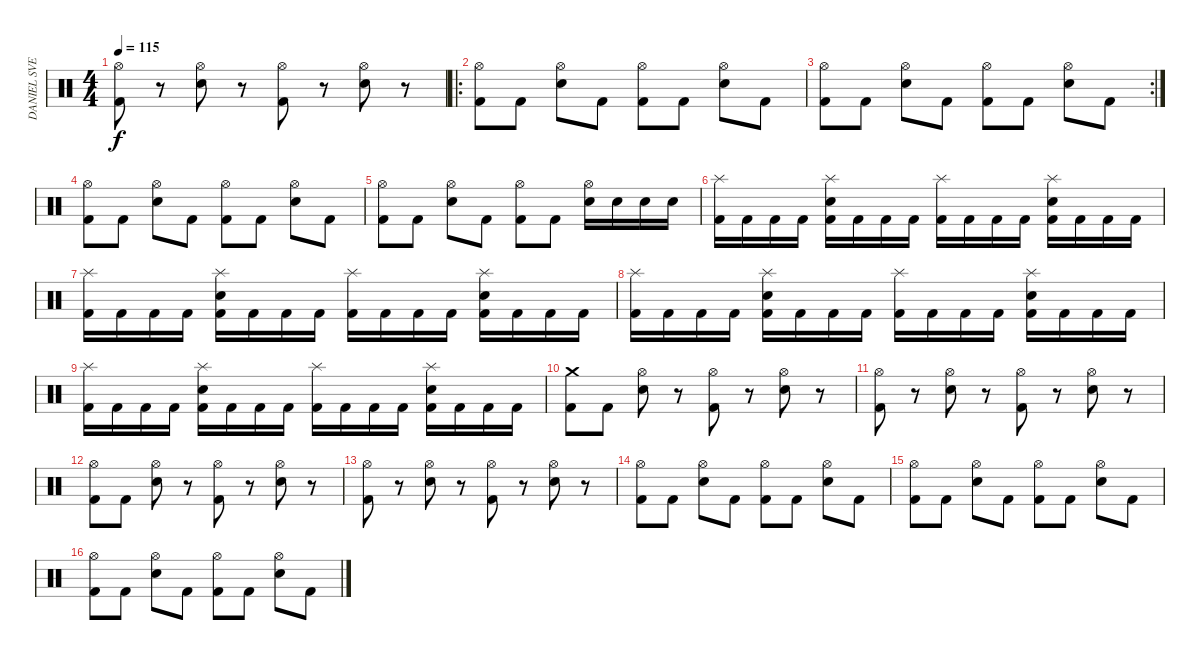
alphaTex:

\track ("DANIEL SVENSSON" "DANIEL SVE") {instrument percussion}
\staff {score}
\articulation defaults
\ts (4 4)
\tempo 115
\clef neutral
\ks c
("Hi-Hat (open)" "Kick (hit) 2").8{dy f} r.8 ("Hi-Hat (open)" "Snare (hit) 2").8 r.8 ("Hi-Hat (open)" "Kick (hit) 2").8 r.8 ("Hi-Hat (open)" "Snare (hit) 2").8 r.8 |
\ro
("Hi-Hat (open)" "Kick (hit) 2").8 "Kick (hit) 2".8 ("Hi-Hat (open)" "Snare (hit) 2").8 "Kick (hit) 2".8 ("Hi-Hat (open)" "Kick (hit) 2").8 "Kick (hit) 2".8 ("Hi-Hat (open)" "Snare (hit) 2").8 "Kick (hit) 2".8 |
\rc 2
("Hi-Hat (open)" "Kick (hit) 2").8 "Kick (hit) 2".8 ("Hi-Hat (open)" "Snare (hit) 2").8 "Kick (hit) 2".8 ("Hi-Hat (open)" "Kick (hit) 2").8 "Kick (hit) 2".8 ("Hi-Hat (open)" "Snare (hit) 2").8 "Kick (hit) 2".8 |
("Hi-Hat (open)" "Kick (hit) 2").8 "Kick (hit) 2".8 ("Hi-Hat (open)" "Snare (hit) 2").8 "Kick (hit) 2".8 ("Hi-Hat (open)" "Kick (hit) 2").8 "Kick (hit) 2".8 ("Hi-Hat (open)" "Snare (hit) 2").8 "Kick (hit) 2".8 |
("Hi-Hat (open)" "Kick (hit) 2").8 "Kick (hit) 2".8 ("Hi-Hat (open)" "Snare (hit) 2").8 "Kick (hit) 2".8 ("Hi-Hat (open)" "Kick (hit) 2").8 "Kick (hit) 2".8 ("Hi-Hat (open)" "Snare (hit) 2").16 "Snare (hit) 2".16 "Snare (hit) 2".16 "Snare (hit) 2".16 |
("Splash (hit)" "Kick (hit) 2").16 "Kick (hit) 2".16 "Kick (hit) 2".16 "Kick (hit) 2".16 ("Splash (hit)" "Snare (hit) 2" "Kick (hit) 2").16 "Kick (hit) 2".16 "Kick (hit) 2".16 "Kick (hit) 2".16 ("Splash (hit)" "Kick (hit) 2").16 "Kick (hit) 2".16 "Kick (hit) 2".16 "Kick (hit) 2".16 ("Splash (hit)" "Snare (hit) 2" "Kick (hit) 2").16 "Kick (hit) 2".16 "Kick (hit) 2".16 "Kick (hit) 2".16 |
("Splash (hit)" "Kick (hit) 2").16 "Kick (hit) 2".16 "Kick (hit) 2".16 "Kick (hit) 2".16 ("Splash (hit)" "Snare (hit) 2" "Kick (hit) 2").16 "Kick (hit) 2".16 "Kick (hit) 2".16 "Kick (hit) 2".16 ("Splash (hit)" "Kick (hit) 2").16 "Kick (hit) 2".16 "Kick (hit) 2".16 "Kick (hit) 2".16 ("Splash (hit)" "Snare (hit) 2" "Kick (hit) 2").16 "Kick (hit) 2".16 "Kick (hit) 2".16 "Kick (hit) 2".16 |
("Splash (hit)" "Kick (hit) 2").16 "Kick (hit) 2".16 "Kick (hit) 2".16 "Kick (hit) 2".16 ("Splash (hit)" "Snare (hit) 2" "Kick (hit) 2").16 "Kick (hit) 2".16 "Kick (hit) 2".16 "Kick (hit) 2".16 ("Splash (hit)" "Kick (hit) 2").16 "Kick (hit) 2".16 "Kick (hit) 2".16 "Kick (hit) 2".16 ("Splash (hit)" "Snare (hit) 2" "Kick (hit) 2").16 "Kick (hit) 2".16 "Kick (hit) 2".16 "Kick (hit) 2".16 |
("Splash (hit)" "Kick (hit) 2").16 "Kick (hit) 2".16 "Kick (hit) 2".16 "Kick (hit) 2".16 ("Splash (hit)" "Snare (hit) 2" "Kick (hit) 2").16 "Kick (hit) 2".16 "Kick (hit) 2".16 "Kick (hit) 2".16 ("Splash (hit)" "Kick (hit) 2").16 "Kick (hit) 2".16 "Kick (hit) 2".16 "Kick (hit) 2".16 ("Splash (hit)" "Snare (hit) 2" "Kick (hit) 2").16 "Kick (hit) 2".16 "Kick (hit) 2".16 "Kick (hit) 2".16 |
("Crash medium (hit)" "Kick (hit) 2").8 "Kick (hit) 2".8 ("Hi-Hat (open)" "Snare (hit) 2").8 r.8 ("Hi-Hat (open)" "Kick (hit) 2").8 r.8 ("Hi-Hat (open)" "Snare (hit) 2").8 r.8 |
("Hi-Hat (open)" "Kick (hit) 2").8 r.8 ("Hi-Hat (open)" "Snare (hit) 2").8 r.8 ("Hi-Hat (open)" "Kick (hit) 2").8 r.8 ("Hi-Hat (open)" "Snare (hit) 2").8 r.8 |
("Hi-Hat (open)" "Kick (hit) 2").8 "Kick (hit) 2".8 ("Hi-Hat (open)" "Snare (hit) 2").8 r.8 ("Hi-Hat (open)" "Kick (hit) 2").8 r.8 ("Hi-Hat (open)" "Snare (hit) 2").8 r.8 |
("Hi-Hat (open)" "Kick (hit) 2").8 r.8 ("Hi-Hat (open)" "Snare (hit) 2").8 r.8 ("Hi-Hat (open)" "Kick (hit) 2").8 r.8 ("Hi-Hat (open)" "Snare (hit) 2").8 r.8 |
("Hi-Hat (open)" "Kick (hit) 2").8 "Kick (hit) 2".8 ("Hi-Hat (open)" "Snare (hit) 2").8 "Kick (hit) 2".8 ("Hi-Hat (open)" "Kick (hit) 2").8 "Kick (hit) 2".8 ("Hi-Hat (open)" "Snare (hit) 2").8 "Kick (hit) 2".8 |
("Hi-Hat (open)" "Kick (hit) 2").8 "Kick (hit) 2".8 ("Hi-Hat (open)" "Snare (hit) 2").8 "Kick (hit) 2".8 ("Hi-Hat (open)" "Kick (hit) 2").8 "Kick (hit) 2".8 ("Hi-Hat (open)" "Snare (hit) 2").8 "Kick (hit) 2".8 |
("Hi-Hat (open)" "Kick (hit) 2").8 "Kick (hit) 2".8 ("Hi-Hat (open)" "Snare (hit) 2").8 "Kick (hit) 2".8 ("Hi-Hat (open)" "Kick (hit) 2").8 "Kick (hit) 2".8 ("Hi-Hat (open)" "Snare (hit) 2").8 "Kick (hit) 2".8
